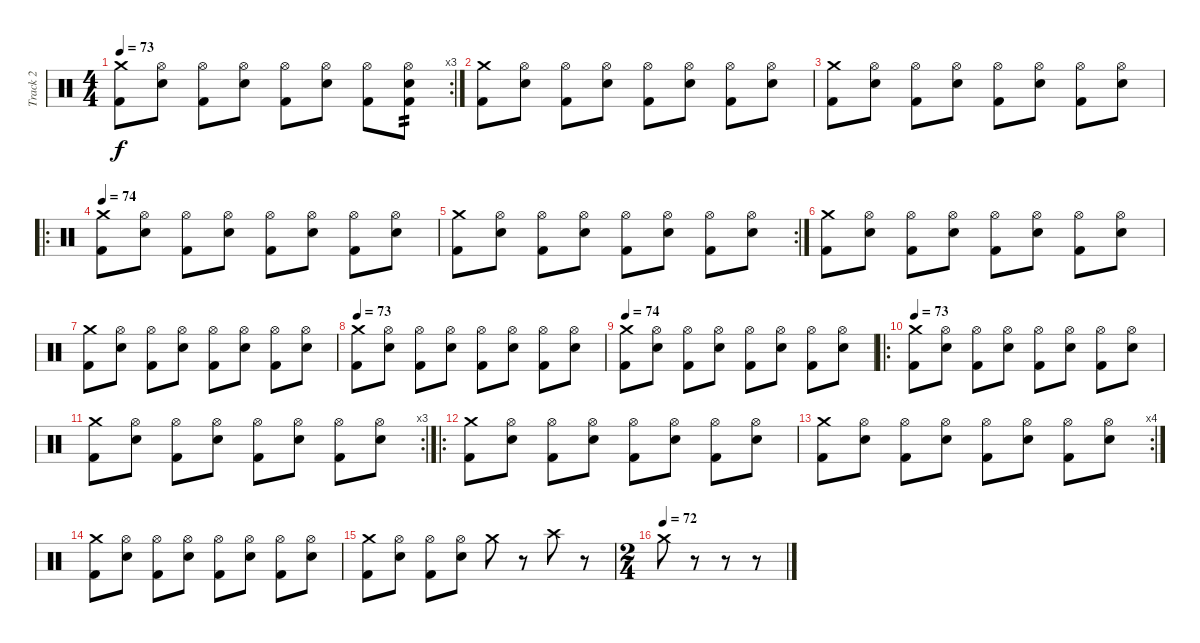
\track ("Track 2" "Track 2") {instrument percussion}
\staff {score}
\articulation defaults
\rc 3
\ts (4 4)
\tempo 73
\clef neutral
\ks c
("Kick (hit) 2" "Crash medium (hit)").8{dy f} ("Snare (hit) 2" "Hi-Hat (open)").8 ("Kick (hit) 2" "Hi-Hat (open)").8 ("Snare (hit) 2" "Hi-Hat (open)").8 ("Kick (hit) 2" "Hi-Hat (open)").8 ("Snare (hit) 2" "Hi-Hat (open)").8 ("Kick (hit) 2" "Hi-Hat (open)").8 ("Kick (hit) 2" "Snare (hit) 2" "Hi-Hat (open)").8{tp 2} |
("Kick (hit) 2" "Crash medium (hit)").8 ("Snare (hit) 2" "Hi-Hat (open)").8 ("Kick (hit) 2" "Hi-Hat (open)").8 ("Snare (hit) 2" "Hi-Hat (open)").8 ("Kick (hit) 2" "Hi-Hat (open)").8 ("Snare (hit) 2" "Hi-Hat (open)").8 ("Kick (hit) 2" "Hi-Hat (open)").8 ("Snare (hit) 2" "Hi-Hat (open)").8 |
("Kick (hit) 2" "Crash medium (hit)").8 ("Snare (hit) 2" "Hi-Hat (open)").8 ("Kick (hit) 2" "Hi-Hat (open)").8 ("Snare (hit) 2" "Hi-Hat (open)").8 ("Kick (hit) 2" "Hi-Hat (open)").8 ("Snare (hit) 2" "Hi-Hat (open)").8 ("Kick (hit) 2" "Hi-Hat (open)").8 ("Snare (hit) 2" "Hi-Hat (open)").8 |
\ro
\tempo 74
("Kick (hit) 2" "Crash medium (hit)").8 ("Snare (hit) 2" "Hi-Hat (open)").8 ("Kick (hit) 2" "Hi-Hat (open)").8 ("Snare (hit) 2" "Hi-Hat (open)").8 ("Kick (hit) 2" "Hi-Hat (open)").8 ("Snare (hit) 2" "Hi-Hat (open)").8 ("Kick (hit) 2" "Hi-Hat (open)").8 ("Snare (hit) 2" "Hi-Hat (open)").8 |
\rc 2
("Kick (hit) 2" "Crash medium (hit)").8 ("Snare (hit) 2" "Hi-Hat (open)").8 ("Kick (hit) 2" "Hi-Hat (open)").8 ("Snare (hit) 2" "Hi-Hat (open)").8 ("Kick (hit) 2" "Hi-Hat (open)").8 ("Snare (hit) 2" "Hi-Hat (open)").8 ("Kick (hit) 2" "Hi-Hat (open)").8 ("Snare (hit) 2" "Hi-Hat (open)").8 |
("Kick (hit) 2" "Crash medium (hit)").8 ("Snare (hit) 2" "Hi-Hat (open)").8 ("Kick (hit) 2" "Hi-Hat (open)").8 ("Snare (hit) 2" "Hi-Hat (open)").8 ("Kick (hit) 2" "Hi-Hat (open)").8 ("Snare (hit) 2" "Hi-Hat (open)").8 ("Kick (hit) 2" "Hi-Hat (open)").8 ("Snare (hit) 2" "Hi-Hat (open)").8 |
("Kick (hit) 2" "Crash medium (hit)").8 ("Snare (hit) 2" "Hi-Hat (open)").8 ("Kick (hit) 2" "Hi-Hat (open)").8 ("Snare (hit) 2" "Hi-Hat (open)").8 ("Kick (hit) 2" "Hi-Hat (open)").8 ("Snare (hit) 2" "Hi-Hat (open)").8 ("Kick (hit) 2" "Hi-Hat (open)").8 ("Snare (hit) 2" "Hi-Hat (open)").8 |
\tempo 73
("Kick (hit) 2" "Crash medium (hit)").8 ("Snare (hit) 2" "Hi-Hat (open)").8 ("Kick (hit) 2" "Hi-Hat (open)").8 ("Snare (hit) 2" "Hi-Hat (open)").8 ("Kick (hit) 2" "Hi-Hat (open)").8 ("Snare (hit) 2" "Hi-Hat (open)").8 ("Kick (hit) 2" "Hi-Hat (open)").8 ("Snare (hit) 2" "Hi-Hat (open)").8 |
\tempo 74
("Kick (hit) 2" "Crash medium (hit)").8 ("Snare (hit) 2" "Hi-Hat (open)").8 ("Kick (hit) 2" "Hi-Hat (open)").8 ("Snare (hit) 2" "Hi-Hat (open)").8 ("Kick (hit) 2" "Hi-Hat (open)").8 ("Snare (hit) 2" "Hi-Hat (open)").8 ("Kick (hit) 2" "Hi-Hat (open)").8 ("Snare (hit) 2" "Hi-Hat (open)").8 |
\ro
\tempo 73
("Kick (hit) 2" "Crash medium (hit)").8 ("Snare (hit) 2" "Hi-Hat (open)").8 ("Kick (hit) 2" "Hi-Hat (open)").8 ("Snare (hit) 2" "Hi-Hat (open)").8 ("Kick (hit) 2" "Hi-Hat (open)").8 ("Snare (hit) 2" "Hi-Hat (open)").8 ("Kick (hit) 2" "Hi-Hat (open)").8 ("Snare (hit) 2" "Hi-Hat (open)").8 |
\rc 3
("Kick (hit) 2" "Crash medium (hit)").8 ("Snare (hit) 2" "Hi-Hat (open)").8 ("Kick (hit) 2" "Hi-Hat (open)").8 ("Snare (hit) 2" "Hi-Hat (open)").8 ("Kick (hit) 2" "Hi-Hat (open)").8 ("Snare (hit) 2" "Hi-Hat (open)").8 ("Kick (hit) 2" "Hi-Hat (open)").8 ("Snare (hit) 2" "Hi-Hat (open)").8 |
\ro
("Kick (hit) 2" "Crash medium (hit)").8 ("Snare (hit) 2" "Hi-Hat (open)").8 ("Kick (hit) 2" "Hi-Hat (open)").8 ("Snare (hit) 2" "Hi-Hat (open)").8 ("Kick (hit) 2" "Hi-Hat (open)").8 ("Snare (hit) 2" "Hi-Hat (open)").8 ("Kick (hit) 2" "Hi-Hat (open)").8 ("Snare (hit) 2" "Hi-Hat (open)").8 |
\rc 4
("Kick (hit) 2" "Crash medium (hit)").8 ("Snare (hit) 2" "Hi-Hat (open)").8 ("Kick (hit) 2" "Hi-Hat (open)").8 ("Snare (hit) 2" "Hi-Hat (open)").8 ("Kick (hit) 2" "Hi-Hat (open)").8 ("Snare (hit) 2" "Hi-Hat (open)").8 ("Kick (hit) 2" "Hi-Hat (open)").8 ("Snare (hit) 2" "Hi-Hat (open)").8 |
("Kick (hit) 2" "Crash medium (hit)").8 ("Snare (hit) 2" "Hi-Hat (open)").8 ("Kick (hit) 2" "Hi-Hat (open)").8 ("Snare (hit) 2" "Hi-Hat (open)").8 ("Kick (hit) 2" "Hi-Hat (open)").8 ("Snare (hit) 2" "Hi-Hat (open)").8 ("Kick (hit) 2" "Hi-Hat (open)").8 ("Snare (hit) 2" "Hi-Hat (open)").8 |
("Kick (hit) 2" "Crash medium (hit)").8 ("Snare (hit) 2" "Hi-Hat (open)").8 ("Kick (hit) 2" "Hi-Hat (open)").8 ("Snare (hit) 2" "Hi-Hat (open)").8 "Crash medium (hit)".8 r.8 "Crash high (hit)".8 r.8 |
\ts (2 4)
\tempo (72)
"Crash medium (hit)".8 r.8 r.8 r.8
